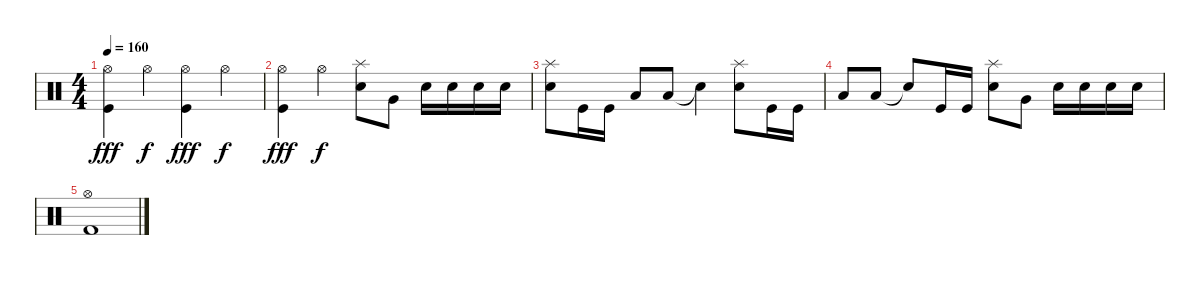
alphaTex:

\track "" {instrument percussion}
\staff {score}
\articulation defaults
\ts (4 4)
\tempo 160
\clef neutral
\ks c
("Hi-Hat (open)" "Kick (hit)").4{dy fff} "Hi-Hat (open)".4{dy f} ("Hi-Hat (open)" "Kick (hit)").4{dy fff} "Hi-Hat (open)".4{dy f} |
("Hi-Hat (open)" "Kick (hit)").4{dy fff} "Hi-Hat (open)".4{dy f} ("Splash (hit)" "Electric Snare (hit)").8 "Very Low Tom (hit)".8 "Electric Snare (hit)".16 "Electric Snare (hit)".16 "Electric Snare (hit)".16 "Electric Snare (hit)".16 |
("Splash (hit)" "Electric Snare (hit)").8 "Kick (hit)".16 "Kick (hit)".16 "Low Floor Tom (hit)".8 "Low Floor Tom (hit)".8 "Snare (hit)"{t}.4 ("Splash (hit)" "Electric Snare (hit)").8 "Kick (hit)".16 "Kick (hit)".16 |
"Low Floor Tom (hit)".8 "Low Floor Tom (hit)".8 "Snare (hit)"{t}.8 "Kick (hit)".16 "Kick (hit)".16 ("Splash (hit)" "Electric Snare (hit)").8 "Very Low Tom (hit)".8 "Electric Snare (hit)".16 "Electric Snare (hit)".16 "Electric Snare (hit)".16 "Electric Snare (hit)".16 |
("Hi-Hat (open)" "Kick (hit) 2").1
